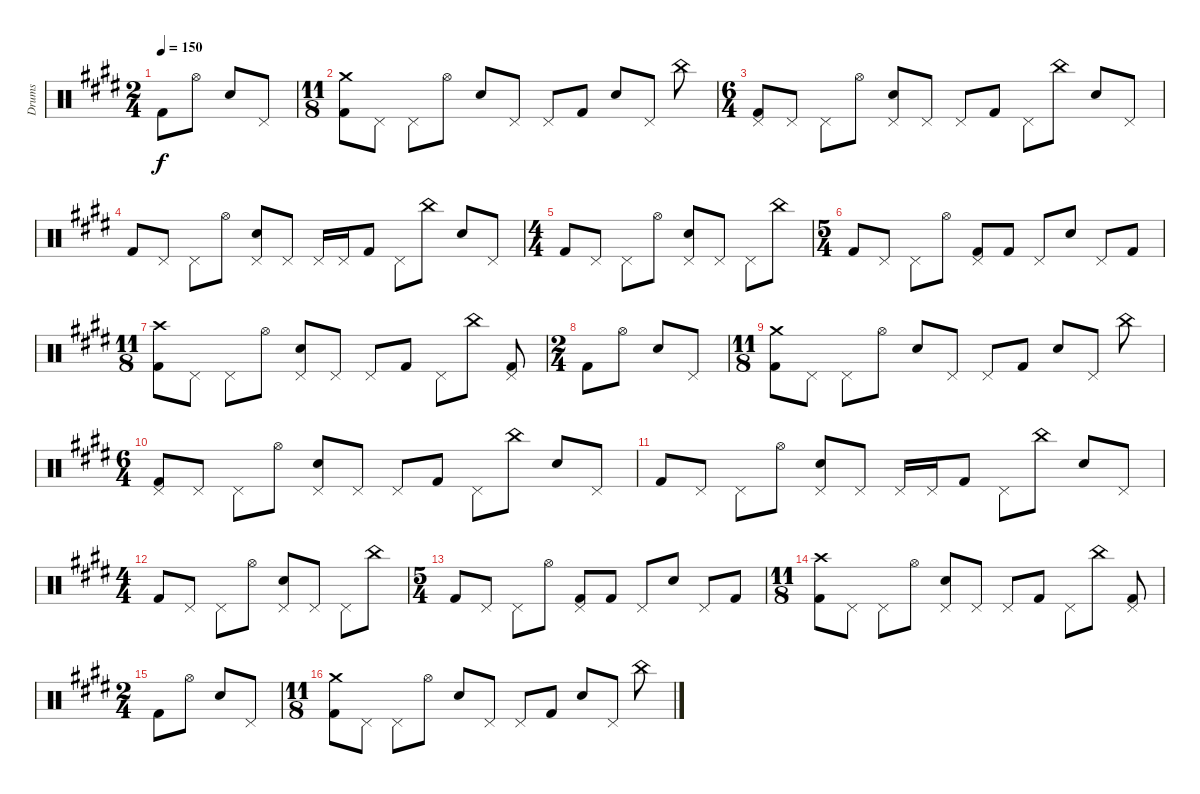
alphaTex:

\track ("Drums" "Drums") {instrument percussion}
\staff {score}
\articulation defaults
\ts (2 4)
\tempo 150
\clef neutral
\ks e "Kick (hit) 2".8{dy f} "Hi-Hat (open)".8 "Electric Snare (hit)".8 "Pedal Hi-Hat (hit)".8
|
\ts (11 8)
("Crash medium (hit)" "Kick (hit) 2").8 "Pedal Hi-Hat (hit)".8 "Pedal Hi-Hat (hit)".8 "Hi-Hat (open)".8 "Electric Snare (hit)".8 "Pedal Hi-Hat (hit)".8 "Pedal Hi-Hat (hit)".8 "Kick (hit) 2".8 "Electric Snare (hit)".8 "Pedal Hi-Hat (hit)".8 "China (hit)".8 |
\ts (6 4)
("Pedal Hi-Hat (hit)" "Kick (hit) 2").8 "Pedal Hi-Hat (hit)".8 "Pedal Hi-Hat (hit)".8 "Hi-Hat (open)".8 ("Pedal Hi-Hat (hit)" "Electric Snare (hit)").8 "Pedal Hi-Hat (hit)".8 "Pedal Hi-Hat (hit)".8 "Kick (hit) 2".8 "Pedal Hi-Hat (hit)".8 "China (hit)".8 "Electric Snare (hit)".8 "Pedal Hi-Hat (hit)".8 |
"Kick (hit) 2".8 "Pedal Hi-Hat (hit)".8 "Pedal Hi-Hat (hit)".8 "Hi-Hat (open)".8 ("Pedal Hi-Hat (hit)" "Electric Snare (hit)").8 "Pedal Hi-Hat (hit)".8 "Pedal Hi-Hat (hit)".16 "Pedal Hi-Hat (hit)".16 "Kick (hit) 2".8 "Pedal Hi-Hat (hit)".8 "China (hit)".8 "Electric Snare (hit)".8 "Pedal Hi-Hat (hit)".8 |
\ts (4 4)
"Kick (hit) 2".8 "Pedal Hi-Hat (hit)".8 "Pedal Hi-Hat (hit)".8 "Hi-Hat (open)".8 ("Pedal Hi-Hat (hit)" "Electric Snare (hit)").8 "Pedal Hi-Hat (hit)".8 "Pedal Hi-Hat (hit)".8 "China (hit)".8 |
\ts (5 4)
"Kick (hit) 2".8 "Pedal Hi-Hat (hit)".8 "Pedal Hi-Hat (hit)".8 "Hi-Hat (open)".8 ("Pedal Hi-Hat (hit)" "Kick (hit) 2").8 "Kick (hit) 2".8 "Pedal Hi-Hat (hit)".8 "Electric Snare (hit)".8 "Pedal Hi-Hat (hit)".8 "Kick (hit) 2".8 |
\ts (11 8)
("Crash high (hit)" "Kick (hit) 2").8 "Pedal Hi-Hat (hit)".8 "Pedal Hi-Hat (hit)".8 "Hi-Hat (open)".8 ("Pedal Hi-Hat (hit)" "Electric Snare (hit)").8 "Pedal Hi-Hat (hit)".8 "Pedal Hi-Hat (hit)".8 "Kick (hit) 2".8 "Pedal Hi-Hat (hit)".8 "China (hit)".8 ("Pedal Hi-Hat (hit)" "Kick (hit) 2").8 |
\ts (2 4)
"Kick (hit) 2".8 "Hi-Hat (open)".8 "Electric Snare (hit)".8 "Pedal Hi-Hat (hit)".8 |
\ts (11 8)
("Crash medium (hit)" "Kick (hit) 2").8 "Pedal Hi-Hat (hit)".8 "Pedal Hi-Hat (hit)".8 "Hi-Hat (open)".8 "Electric Snare (hit)".8 "Pedal Hi-Hat (hit)".8 "Pedal Hi-Hat (hit)".8 "Kick (hit) 2".8 "Electric Snare (hit)".8 "Pedal Hi-Hat (hit)".8 "China (hit)".8 |
\ts (6 4)
("Pedal Hi-Hat (hit)" "Kick (hit) 2").8 "Pedal Hi-Hat (hit)".8 "Pedal Hi-Hat (hit)".8 "Hi-Hat (open)".8 ("Pedal Hi-Hat (hit)" "Electric Snare (hit)").8 "Pedal Hi-Hat (hit)".8 "Pedal Hi-Hat (hit)".8 "Kick (hit) 2".8 "Pedal Hi-Hat (hit)".8 "China (hit)".8 "Electric Snare (hit)".8 "Pedal Hi-Hat (hit)".8 |
"Kick (hit) 2".8 "Pedal Hi-Hat (hit)".8 "Pedal Hi-Hat (hit)".8 "Hi-Hat (open)".8 ("Pedal Hi-Hat (hit)" "Electric Snare (hit)").8 "Pedal Hi-Hat (hit)".8 "Pedal Hi-Hat (hit)".16 "Pedal Hi-Hat (hit)".16 "Kick (hit) 2".8 "Pedal Hi-Hat (hit)".8 "China (hit)".8 "Electric Snare (hit)".8 "Pedal Hi-Hat (hit)".8 |
\ts (4 4)
"Kick (hit) 2".8 "Pedal Hi-Hat (hit)".8 "Pedal Hi-Hat (hit)".8 "Hi-Hat (open)".8 ("Pedal Hi-Hat (hit)" "Electric Snare (hit)").8 "Pedal Hi-Hat (hit)".8 "Pedal Hi-Hat (hit)".8 "China (hit)".8 |
\ts (5 4)
"Kick (hit) 2".8 "Pedal Hi-Hat (hit)".8 "Pedal Hi-Hat (hit)".8 "Hi-Hat (open)".8 ("Pedal Hi-Hat (hit)" "Kick (hit) 2").8 "Kick (hit) 2".8 "Pedal Hi-Hat (hit)".8 "Electric Snare (hit)".8 "Pedal Hi-Hat (hit)".8 "Kick (hit) 2".8 |
\ts (11 8)
\section ("" "")
("Crash high (hit)" "Kick (hit) 2").8 "Pedal Hi-Hat (hit)".8 "Pedal Hi-Hat (hit)".8 "Hi-Hat (open)".8 ("Pedal Hi-Hat (hit)" "Electric Snare (hit)").8 "Pedal Hi-Hat (hit)".8 "Pedal Hi-Hat (hit)".8 "Kick (hit) 2".8 "Pedal Hi-Hat (hit)".8 "China (hit)".8 ("Pedal Hi-Hat (hit)" "Kick (hit) 2").8 |
\ts (2 4)
"Kick (hit) 2".8 "Hi-Hat (open)".8 "Electric Snare (hit)".8 "Pedal Hi-Hat (hit)".8 |
\ts (11 8)
("Crash medium (hit)" "Kick (hit) 2").8 "Pedal Hi-Hat (hit)".8 "Pedal Hi-Hat (hit)".8 "Hi-Hat (open)".8 "Electric Snare (hit)".8 "Pedal Hi-Hat (hit)".8 "Pedal Hi-Hat (hit)".8 "Kick (hit) 2".8 "Electric Snare (hit)".8 "Pedal Hi-Hat (hit)".8 "China (hit)".8
